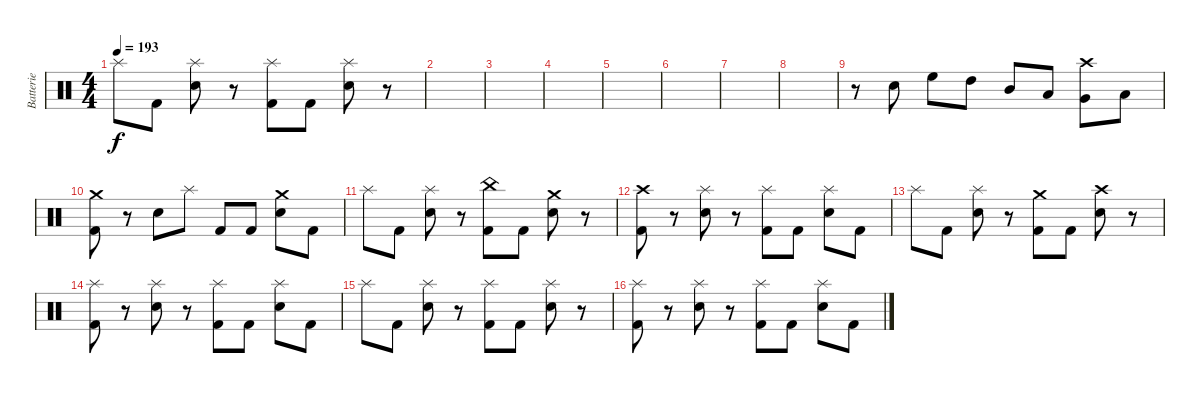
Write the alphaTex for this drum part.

\track ("Batterie" "Batterie") {instrument percussion}
\staff {score}
\articulation defaults
\ts (4 4)
\tempo 193
\clef neutral
\ks c "Splash (hit)".8{dy f} "Kick (hit) 2".8
("Electric Snare (hit)" "Splash (hit)").8 r.8 ("Kick (hit) 2" "Splash (hit)").8 "Kick (hit) 2".8 ("Electric Snare (hit)" "Splash (hit)").8 r.8 |
|
|
|
|
|
|
|
r.8 "Electric Snare (hit)".8 "High Floor Tom (hit)".8 "High Tom (hit)".8 "Mid Tom (hit)".8 "Low Tom (hit)".8 ("Very Low Tom (hit)" "Crash high (hit)").8 "Low Floor Tom (hit)".8 |
("Kick (hit) 2" "Crash medium (hit)").8 r.8 "Electric Snare (hit)".8 "Splash (hit)".8 "Kick (hit) 2".8 "Kick (hit) 2".8 ("Electric Snare (hit)" "Crash medium (hit)").8 "Kick (hit) 2".8 |
"Splash (hit)".8 "Kick (hit) 2".8 ("Electric Snare (hit)" "Splash (hit)").8 r.8 ("Kick (hit) 2" "China (hit)").8 "Kick (hit) 2".8 ("Electric Snare (hit)" "Crash medium (hit)").8 r.8 |
("Kick (hit) 2" "Crash high (hit)").8 r.8 ("Electric Snare (hit)" "Splash (hit)").8 r.8 ("Kick (hit) 2" "Splash (hit)").8 "Kick (hit) 2".8 ("Electric Snare (hit)" "Splash (hit)").8 "Kick (hit) 2".8 |
"Splash (hit)".8 "Kick (hit) 2".8 ("Electric Snare (hit)" "Splash (hit)").8 r.8 ("Kick (hit) 2" "Crash medium (hit)").8 "Kick (hit) 2".8 ("Electric Snare (hit)" "Crash high (hit)").8 r.8 |
("Kick (hit) 2" "Splash (hit)").8 r.8 ("Electric Snare (hit)" "Splash (hit)").8 r.8 ("Kick (hit) 2" "Splash (hit)").8 "Kick (hit) 2".8 ("Electric Snare (hit)" "Splash (hit)").8 "Kick (hit) 2".8 |
"Splash (hit)".8 "Kick (hit) 2".8 ("Electric Snare (hit)" "Splash (hit)").8 r.8 ("Kick (hit) 2" "Splash (hit)").8 "Kick (hit) 2".8 ("Electric Snare (hit)" "Splash (hit)").8 r.8 |
("Kick (hit) 2" "Splash (hit)").8 r.8 ("Electric Snare (hit)" "Splash (hit)").8 r.8 ("Kick (hit) 2" "Splash (hit)").8 "Kick (hit) 2".8 ("Electric Snare (hit)" "Splash (hit)").8 "Kick (hit) 2".8
